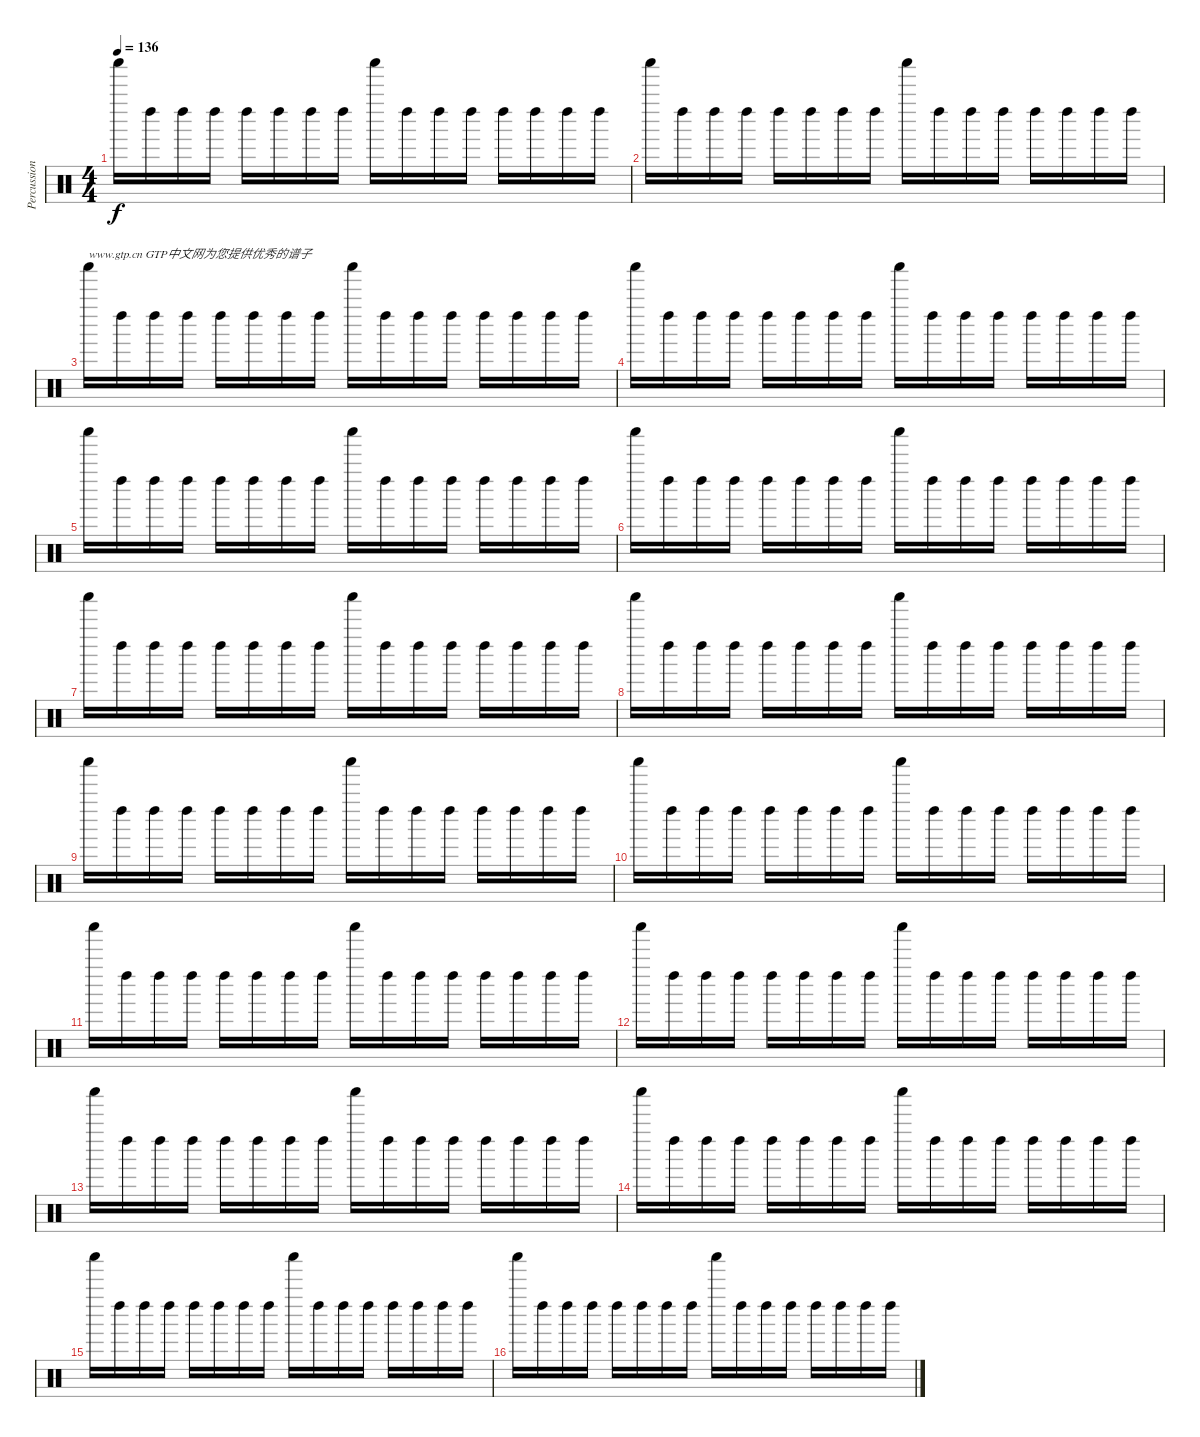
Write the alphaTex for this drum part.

\track ("Percussion" "Percussion") {instrument percussion}
\staff {score}
\articulation defaults
\ts (4 4)
\tempo 136
\clef neutral
\ks c "Shaker (hit)".16{dy f} "Left Maraca (hit)".16 "Left Maraca (hit)".16 "Left Maraca (hit)".16 "Left Maraca (hit)".16 "Left Maraca (hit)".16 "Left Maraca (hit)".16 "Left Maraca (hit)".16 "Shaker (hit)".16 "Left Maraca (hit)".16 "Left Maraca (hit)".16 "Left Maraca (hit)".16 "Left Maraca (hit)".16 "Left Maraca (hit)".16 "Left Maraca (hit)".16 "Left Maraca (hit)".16
|
"Shaker (hit)".16 "Left Maraca (hit)".16 "Left Maraca (hit)".16 "Left Maraca (hit)".16 "Left Maraca (hit)".16 "Left Maraca (hit)".16 "Left Maraca (hit)".16 "Left Maraca (hit)".16 "Shaker (hit)".16 "Left Maraca (hit)".16 "Left Maraca (hit)".16 "Left Maraca (hit)".16 "Left Maraca (hit)".16 "Left Maraca (hit)".16 "Left Maraca (hit)".16 "Left Maraca (hit)".16 |
"Shaker (hit)".16{txt "www.gtp.cn GTP中文网为您提供优秀的谱子"} "Left Maraca (hit)".16 "Left Maraca (hit)".16 "Left Maraca (hit)".16 "Left Maraca (hit)".16 "Left Maraca (hit)".16 "Left Maraca (hit)".16 "Left Maraca (hit)".16 "Shaker (hit)".16 "Left Maraca (hit)".16 "Left Maraca (hit)".16 "Left Maraca (hit)".16 "Left Maraca (hit)".16 "Left Maraca (hit)".16 "Left Maraca (hit)".16 "Left Maraca (hit)".16 |
"Shaker (hit)".16 "Left Maraca (hit)".16 "Left Maraca (hit)".16 "Left Maraca (hit)".16 "Left Maraca (hit)".16 "Left Maraca (hit)".16 "Left Maraca (hit)".16 "Left Maraca (hit)".16 "Shaker (hit)".16 "Left Maraca (hit)".16 "Left Maraca (hit)".16 "Left Maraca (hit)".16 "Left Maraca (hit)".16 "Left Maraca (hit)".16 "Left Maraca (hit)".16 "Left Maraca (hit)".16 |
"Shaker (hit)".16 "Left Maraca (hit)".16 "Left Maraca (hit)".16 "Left Maraca (hit)".16 "Left Maraca (hit)".16 "Left Maraca (hit)".16 "Left Maraca (hit)".16 "Left Maraca (hit)".16 "Shaker (hit)".16 "Left Maraca (hit)".16 "Left Maraca (hit)".16 "Left Maraca (hit)".16 "Left Maraca (hit)".16 "Left Maraca (hit)".16 "Left Maraca (hit)".16 "Left Maraca (hit)".16 |
"Shaker (hit)".16 "Left Maraca (hit)".16 "Left Maraca (hit)".16 "Left Maraca (hit)".16 "Left Maraca (hit)".16 "Left Maraca (hit)".16 "Left Maraca (hit)".16 "Left Maraca (hit)".16 "Shaker (hit)".16 "Left Maraca (hit)".16 "Left Maraca (hit)".16 "Left Maraca (hit)".16 "Left Maraca (hit)".16 "Left Maraca (hit)".16 "Left Maraca (hit)".16 "Left Maraca (hit)".16 |
"Shaker (hit)".16 "Left Maraca (hit)".16 "Left Maraca (hit)".16 "Left Maraca (hit)".16 "Left Maraca (hit)".16 "Left Maraca (hit)".16 "Left Maraca (hit)".16 "Left Maraca (hit)".16 "Shaker (hit)".16 "Left Maraca (hit)".16 "Left Maraca (hit)".16 "Left Maraca (hit)".16 "Left Maraca (hit)".16 "Left Maraca (hit)".16 "Left Maraca (hit)".16 "Left Maraca (hit)".16 |
"Shaker (hit)".16 "Left Maraca (hit)".16 "Left Maraca (hit)".16 "Left Maraca (hit)".16 "Left Maraca (hit)".16 "Left Maraca (hit)".16 "Left Maraca (hit)".16 "Left Maraca (hit)".16 "Shaker (hit)".16 "Left Maraca (hit)".16 "Left Maraca (hit)".16 "Left Maraca (hit)".16 "Left Maraca (hit)".16 "Left Maraca (hit)".16 "Left Maraca (hit)".16 "Left Maraca (hit)".16 |
"Shaker (hit)".16 "Left Maraca (hit)".16 "Left Maraca (hit)".16 "Left Maraca (hit)".16 "Left Maraca (hit)".16 "Left Maraca (hit)".16 "Left Maraca (hit)".16 "Left Maraca (hit)".16 "Shaker (hit)".16 "Left Maraca (hit)".16 "Left Maraca (hit)".16 "Left Maraca (hit)".16 "Left Maraca (hit)".16 "Left Maraca (hit)".16 "Left Maraca (hit)".16 "Left Maraca (hit)".16 |
"Shaker (hit)".16 "Left Maraca (hit)".16 "Left Maraca (hit)".16 "Left Maraca (hit)".16 "Left Maraca (hit)".16 "Left Maraca (hit)".16 "Left Maraca (hit)".16 "Left Maraca (hit)".16 "Shaker (hit)".16 "Left Maraca (hit)".16 "Left Maraca (hit)".16 "Left Maraca (hit)".16 "Left Maraca (hit)".16 "Left Maraca (hit)".16 "Left Maraca (hit)".16 "Left Maraca (hit)".16 |
"Shaker (hit)".16 "Left Maraca (hit)".16 "Left Maraca (hit)".16 "Left Maraca (hit)".16 "Left Maraca (hit)".16 "Left Maraca (hit)".16 "Left Maraca (hit)".16 "Left Maraca (hit)".16 "Shaker (hit)".16 "Left Maraca (hit)".16 "Left Maraca (hit)".16 "Left Maraca (hit)".16 "Left Maraca (hit)".16 "Left Maraca (hit)".16 "Left Maraca (hit)".16 "Left Maraca (hit)".16 |
"Shaker (hit)".16 "Left Maraca (hit)".16 "Left Maraca (hit)".16 "Left Maraca (hit)".16 "Left Maraca (hit)".16 "Left Maraca (hit)".16 "Left Maraca (hit)".16 "Left Maraca (hit)".16 "Shaker (hit)".16 "Left Maraca (hit)".16 "Left Maraca (hit)".16 "Left Maraca (hit)".16 "Left Maraca (hit)".16 "Left Maraca (hit)".16 "Left Maraca (hit)".16 "Left Maraca (hit)".16 |
"Shaker (hit)".16 "Left Maraca (hit)".16 "Left Maraca (hit)".16 "Left Maraca (hit)".16 "Left Maraca (hit)".16 "Left Maraca (hit)".16 "Left Maraca (hit)".16 "Left Maraca (hit)".16 "Shaker (hit)".16 "Left Maraca (hit)".16 "Left Maraca (hit)".16 "Left Maraca (hit)".16 "Left Maraca (hit)".16 "Left Maraca (hit)".16 "Left Maraca (hit)".16 "Left Maraca (hit)".16 |
"Shaker (hit)".16 "Left Maraca (hit)".16 "Left Maraca (hit)".16 "Left Maraca (hit)".16 "Left Maraca (hit)".16 "Left Maraca (hit)".16 "Left Maraca (hit)".16 "Left Maraca (hit)".16 "Shaker (hit)".16 "Left Maraca (hit)".16 "Left Maraca (hit)".16 "Left Maraca (hit)".16 "Left Maraca (hit)".16 "Left Maraca (hit)".16 "Left Maraca (hit)".16 "Left Maraca (hit)".16 |
"Shaker (hit)".16 "Left Maraca (hit)".16 "Left Maraca (hit)".16 "Left Maraca (hit)".16 "Left Maraca (hit)".16 "Left Maraca (hit)".16 "Left Maraca (hit)".16 "Left Maraca (hit)".16 "Shaker (hit)".16 "Left Maraca (hit)".16 "Left Maraca (hit)".16 "Left Maraca (hit)".16 "Left Maraca (hit)".16 "Left Maraca (hit)".16 "Left Maraca (hit)".16 "Left Maraca (hit)".16 |
"Shaker (hit)".16 "Left Maraca (hit)".16 "Left Maraca (hit)".16 "Left Maraca (hit)".16 "Left Maraca (hit)".16 "Left Maraca (hit)".16 "Left Maraca (hit)".16 "Left Maraca (hit)".16 "Shaker (hit)".16 "Left Maraca (hit)".16 "Left Maraca (hit)".16 "Left Maraca (hit)".16 "Left Maraca (hit)".16 "Left Maraca (hit)".16 "Left Maraca (hit)".16 "Left Maraca (hit)".16
